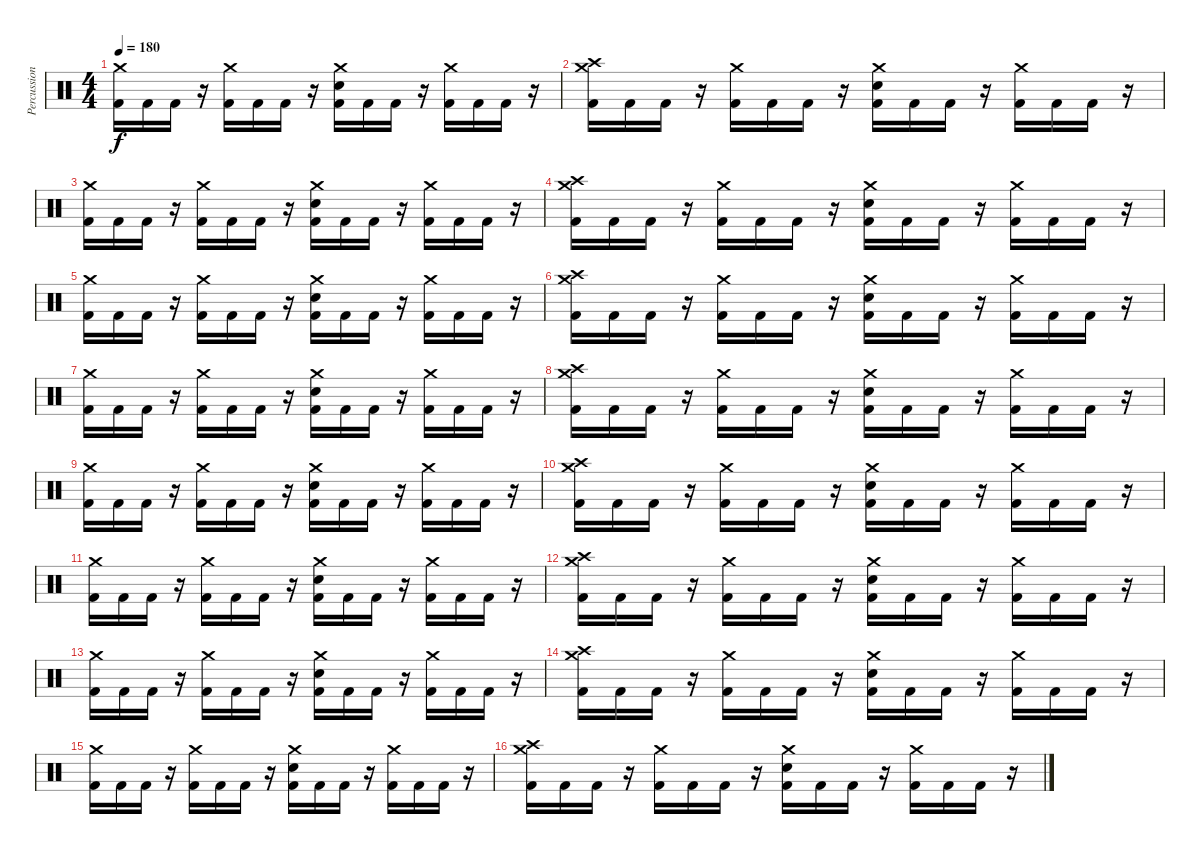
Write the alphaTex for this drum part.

\track ("Percussion" "Percussion") {instrument percussion}
\staff {score}
\articulation defaults
\ts (4 4)
\tempo 180
\clef neutral
\ks c
("Crash medium (hit)" "Kick (hit) 2").16{dy f} "Kick (hit) 2".16 "Kick (hit) 2".16 r.16 ("Crash medium (hit)" "Kick (hit) 2").16 "Kick (hit) 2".16 "Kick (hit) 2".16 r.16 ("Crash medium (hit)" "Electric Snare (hit)" "Kick (hit) 2").16 "Kick (hit) 2".16 "Kick (hit) 2".16 r.16 ("Crash medium (hit)" "Kick (hit) 2").16 "Kick (hit) 2".16 "Kick (hit) 2".16 r.16 |
("Crash medium (hit)" "Crash high (hit)" "Kick (hit) 2").16 "Kick (hit) 2".16 "Kick (hit) 2".16 r.16 ("Crash medium (hit)" "Kick (hit) 2").16 "Kick (hit) 2".16 "Kick (hit) 2".16 r.16 ("Crash medium (hit)" "Electric Snare (hit)" "Kick (hit) 2").16 "Kick (hit) 2".16 "Kick (hit) 2".16 r.16 ("Crash medium (hit)" "Kick (hit) 2").16 "Kick (hit) 2".16 "Kick (hit) 2".16 r.16 |
("Crash medium (hit)" "Kick (hit) 2").16 "Kick (hit) 2".16 "Kick (hit) 2".16 r.16 ("Crash medium (hit)" "Kick (hit) 2").16 "Kick (hit) 2".16 "Kick (hit) 2".16 r.16 ("Crash medium (hit)" "Electric Snare (hit)" "Kick (hit) 2").16 "Kick (hit) 2".16 "Kick (hit) 2".16 r.16 ("Crash medium (hit)" "Kick (hit) 2").16 "Kick (hit) 2".16 "Kick (hit) 2".16 r.16 |
("Crash medium (hit)" "Crash high (hit)" "Kick (hit) 2").16 "Kick (hit) 2".16 "Kick (hit) 2".16 r.16 ("Crash medium (hit)" "Kick (hit) 2").16 "Kick (hit) 2".16 "Kick (hit) 2".16 r.16 ("Crash medium (hit)" "Electric Snare (hit)" "Kick (hit) 2").16 "Kick (hit) 2".16 "Kick (hit) 2".16 r.16 ("Crash medium (hit)" "Kick (hit) 2").16 "Kick (hit) 2".16 "Kick (hit) 2".16 r.16 |
("Crash medium (hit)" "Kick (hit) 2").16 "Kick (hit) 2".16 "Kick (hit) 2".16 r.16 ("Crash medium (hit)" "Kick (hit) 2").16 "Kick (hit) 2".16 "Kick (hit) 2".16 r.16 ("Crash medium (hit)" "Electric Snare (hit)" "Kick (hit) 2").16 "Kick (hit) 2".16 "Kick (hit) 2".16 r.16 ("Crash medium (hit)" "Kick (hit) 2").16 "Kick (hit) 2".16 "Kick (hit) 2".16 r.16 |
("Crash medium (hit)" "Crash high (hit)" "Kick (hit) 2").16 "Kick (hit) 2".16 "Kick (hit) 2".16 r.16 ("Crash medium (hit)" "Kick (hit) 2").16 "Kick (hit) 2".16 "Kick (hit) 2".16 r.16 ("Crash medium (hit)" "Electric Snare (hit)" "Kick (hit) 2").16 "Kick (hit) 2".16 "Kick (hit) 2".16 r.16 ("Crash medium (hit)" "Kick (hit) 2").16 "Kick (hit) 2".16 "Kick (hit) 2".16 r.16 |
("Crash medium (hit)" "Kick (hit) 2").16 "Kick (hit) 2".16 "Kick (hit) 2".16 r.16 ("Crash medium (hit)" "Kick (hit) 2").16 "Kick (hit) 2".16 "Kick (hit) 2".16 r.16 ("Crash medium (hit)" "Electric Snare (hit)" "Kick (hit) 2").16 "Kick (hit) 2".16 "Kick (hit) 2".16 r.16 ("Crash medium (hit)" "Kick (hit) 2").16 "Kick (hit) 2".16 "Kick (hit) 2".16 r.16 |
("Crash medium (hit)" "Crash high (hit)" "Kick (hit) 2").16 "Kick (hit) 2".16 "Kick (hit) 2".16 r.16 ("Crash medium (hit)" "Kick (hit) 2").16 "Kick (hit) 2".16 "Kick (hit) 2".16 r.16 ("Crash medium (hit)" "Electric Snare (hit)" "Kick (hit) 2").16 "Kick (hit) 2".16 "Kick (hit) 2".16 r.16 ("Crash medium (hit)" "Kick (hit) 2").16 "Kick (hit) 2".16 "Kick (hit) 2".16 r.16 |
("Crash medium (hit)" "Kick (hit) 2").16 "Kick (hit) 2".16 "Kick (hit) 2".16 r.16 ("Crash medium (hit)" "Kick (hit) 2").16 "Kick (hit) 2".16 "Kick (hit) 2".16 r.16 ("Crash medium (hit)" "Electric Snare (hit)" "Kick (hit) 2").16 "Kick (hit) 2".16 "Kick (hit) 2".16 r.16 ("Crash medium (hit)" "Kick (hit) 2").16 "Kick (hit) 2".16 "Kick (hit) 2".16 r.16 |
("Crash medium (hit)" "Crash high (hit)" "Kick (hit) 2").16 "Kick (hit) 2".16 "Kick (hit) 2".16 r.16 ("Crash medium (hit)" "Kick (hit) 2").16 "Kick (hit) 2".16 "Kick (hit) 2".16 r.16 ("Crash medium (hit)" "Electric Snare (hit)" "Kick (hit) 2").16 "Kick (hit) 2".16 "Kick (hit) 2".16 r.16 ("Crash medium (hit)" "Kick (hit) 2").16 "Kick (hit) 2".16 "Kick (hit) 2".16 r.16 |
("Crash medium (hit)" "Kick (hit) 2").16 "Kick (hit) 2".16 "Kick (hit) 2".16 r.16 ("Crash medium (hit)" "Kick (hit) 2").16 "Kick (hit) 2".16 "Kick (hit) 2".16 r.16 ("Crash medium (hit)" "Electric Snare (hit)" "Kick (hit) 2").16 "Kick (hit) 2".16 "Kick (hit) 2".16 r.16 ("Crash medium (hit)" "Kick (hit) 2").16 "Kick (hit) 2".16 "Kick (hit) 2".16 r.16 |
("Crash medium (hit)" "Crash high (hit)" "Kick (hit) 2").16 "Kick (hit) 2".16 "Kick (hit) 2".16 r.16 ("Crash medium (hit)" "Kick (hit) 2").16 "Kick (hit) 2".16 "Kick (hit) 2".16 r.16 ("Crash medium (hit)" "Electric Snare (hit)" "Kick (hit) 2").16 "Kick (hit) 2".16 "Kick (hit) 2".16 r.16 ("Crash medium (hit)" "Kick (hit) 2").16 "Kick (hit) 2".16 "Kick (hit) 2".16 r.16 |
("Crash medium (hit)" "Kick (hit) 2").16 "Kick (hit) 2".16 "Kick (hit) 2".16 r.16 ("Crash medium (hit)" "Kick (hit) 2").16 "Kick (hit) 2".16 "Kick (hit) 2".16 r.16 ("Crash medium (hit)" "Electric Snare (hit)" "Kick (hit) 2").16 "Kick (hit) 2".16 "Kick (hit) 2".16 r.16 ("Crash medium (hit)" "Kick (hit) 2").16 "Kick (hit) 2".16 "Kick (hit) 2".16 r.16 |
("Crash medium (hit)" "Crash high (hit)" "Kick (hit) 2").16 "Kick (hit) 2".16 "Kick (hit) 2".16 r.16 ("Crash medium (hit)" "Kick (hit) 2").16 "Kick (hit) 2".16 "Kick (hit) 2".16 r.16 ("Crash medium (hit)" "Electric Snare (hit)" "Kick (hit) 2").16 "Kick (hit) 2".16 "Kick (hit) 2".16 r.16 ("Crash medium (hit)" "Kick (hit) 2").16 "Kick (hit) 2".16 "Kick (hit) 2".16 r.16 |
("Crash medium (hit)" "Kick (hit) 2").16 "Kick (hit) 2".16 "Kick (hit) 2".16 r.16 ("Crash medium (hit)" "Kick (hit) 2").16 "Kick (hit) 2".16 "Kick (hit) 2".16 r.16 ("Crash medium (hit)" "Electric Snare (hit)" "Kick (hit) 2").16 "Kick (hit) 2".16 "Kick (hit) 2".16 r.16 ("Crash medium (hit)" "Kick (hit) 2").16 "Kick (hit) 2".16 "Kick (hit) 2".16 r.16 |
("Crash medium (hit)" "Crash high (hit)" "Kick (hit) 2").16 "Kick (hit) 2".16 "Kick (hit) 2".16 r.16 ("Crash medium (hit)" "Kick (hit) 2").16 "Kick (hit) 2".16 "Kick (hit) 2".16 r.16 ("Crash medium (hit)" "Electric Snare (hit)" "Kick (hit) 2").16 "Kick (hit) 2".16 "Kick (hit) 2".16 r.16 ("Crash medium (hit)" "Kick (hit) 2").16 "Kick (hit) 2".16 "Kick (hit) 2".16 r.16
